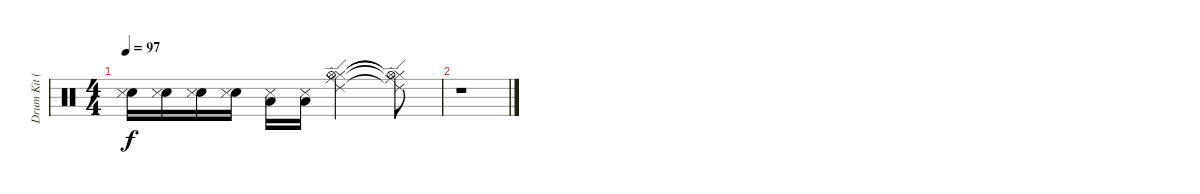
\track ("Drum Kit (Drum Kit 0)" "Drum Kit (") {instrument percussion}
\staff {score}
\articulation defaults
\ts (4 4)
\tempo 97
\clef neutral
\ks c
("Electric Snare (hit)" "Snare (side stick) 3").16{dy f} ("Electric Snare (hit)" "Snare (side stick) 3").16 ("Electric Snare (hit)" "Snare (side stick) 3").16 ("Electric Snare (hit)" "Snare (side stick) 3").16 ("Snare (side stick) 3" "Low Floor Tom (hit)").16 ("Snare (side stick) 3" "Low Floor Tom (hit)").16 ("Hi-Hat (closed)" "Hi-Hat (open)" "Ride (middle)" "Ride (edge) 2").2 ("Hi-Hat (closed)"{t} "Hi-Hat (open)"{t} "Ride (middle)"{t} "Ride (edge) 2"{t}).8 |
r.1
